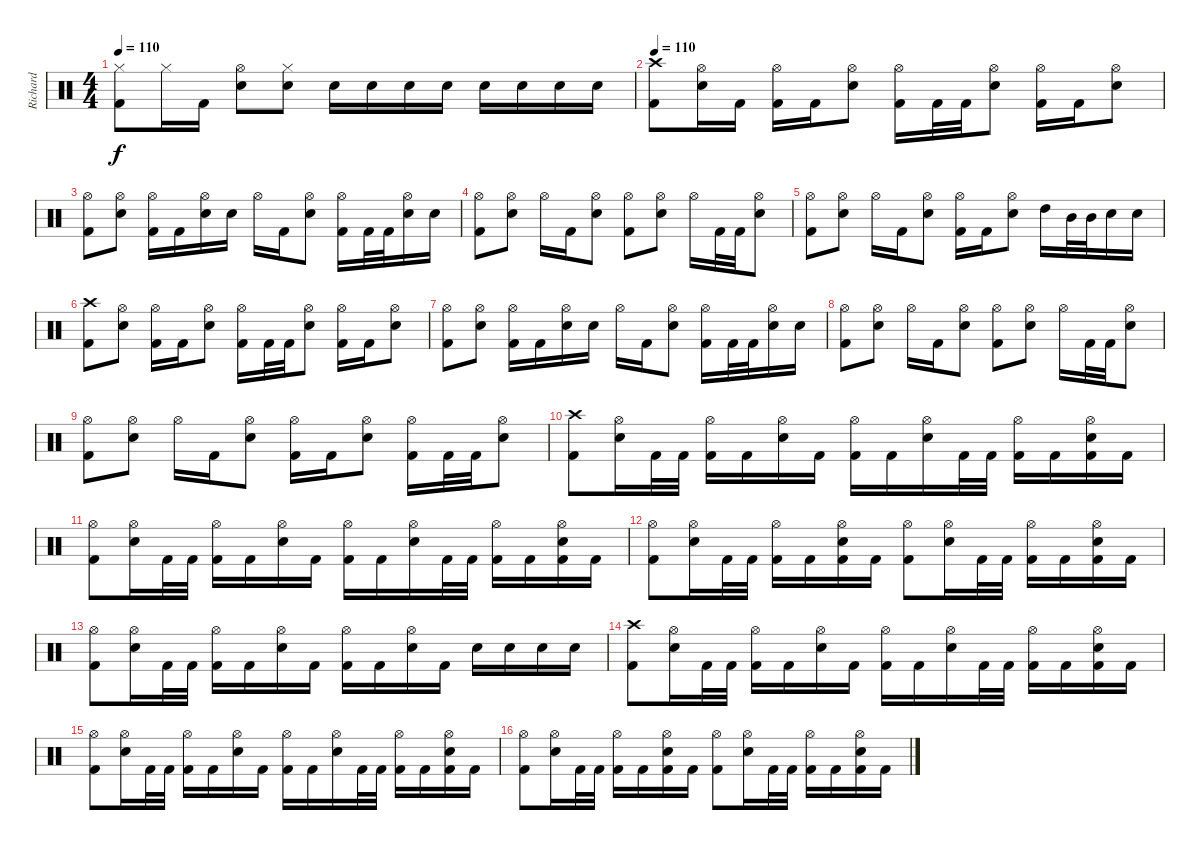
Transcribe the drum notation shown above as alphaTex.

\track ("Richard" "Richard") {instrument percussion}
\staff {score}
\articulation defaults
\ts (4 4)
\tempo 110
\clef neutral
\ks c
("Hi-Hat (closed)" "Kick (hit) 2").8{dy f} "Hi-Hat (closed)".16 "Kick (hit) 2".16 ("Hi-Hat (open)" "Snare (hit) 2").8 ("Hi-Hat (closed)" "Snare (hit) 2").8 "Snare (hit) 2".16 "Snare (hit) 2".16 "Snare (hit) 2".16 "Snare (hit) 2".16 "Snare (hit) 2".16 "Snare (hit) 2".16 "Snare (hit) 2".16 "Snare (hit) 2".16 |
\tempo 110
("Crash high (hit)" "Kick (hit) 2").8 ("Hi-Hat (open)" "Snare (hit) 2").16 "Kick (hit) 2".16 ("Hi-Hat (open)" "Kick (hit) 2").16 "Kick (hit) 2".16 ("Hi-Hat (open)" "Snare (hit) 2").8 ("Hi-Hat (open)" "Kick (hit) 2").16 "Kick (hit) 2".32 "Kick (hit) 2".32 ("Hi-Hat (open)" "Snare (hit) 2").8 ("Hi-Hat (open)" "Kick (hit) 2").16 "Kick (hit) 2".16 ("Hi-Hat (open)" "Snare (hit) 2").8 |
("Hi-Hat (open)" "Kick (hit) 2").8 ("Hi-Hat (open)" "Snare (hit) 2").8 ("Hi-Hat (open)" "Kick (hit) 2").16 "Kick (hit) 2".16 ("Hi-Hat (open)" "Snare (hit) 2").16 "Snare (hit) 2".16 "Hi-Hat (open)".16 "Kick (hit) 2".16 ("Hi-Hat (open)" "Snare (hit) 2").8 ("Hi-Hat (open)" "Kick (hit) 2").16 "Kick (hit) 2".32 "Kick (hit) 2".32 ("Hi-Hat (open)" "Snare (hit) 2").16 "Snare (hit) 2".16 |
("Hi-Hat (open)" "Kick (hit) 2").8 ("Hi-Hat (open)" "Snare (hit) 2").8 "Hi-Hat (open)".16 "Kick (hit) 2".16 ("Hi-Hat (open)" "Snare (hit) 2").8 ("Hi-Hat (open)" "Kick (hit) 2").8 ("Hi-Hat (open)" "Snare (hit) 2").8 "Hi-Hat (open)".16 "Kick (hit) 2".32 "Kick (hit) 2".32 ("Hi-Hat (open)" "Snare (hit) 2").8 |
("Hi-Hat (open)" "Kick (hit) 2").8 ("Hi-Hat (open)" "Snare (hit) 2").8 "Hi-Hat (open)".16 "Kick (hit) 2".16 ("Hi-Hat (open)" "Snare (hit) 2").8 ("Hi-Hat (open)" "Kick (hit) 2").16 "Kick (hit) 2".16 ("Hi-Hat (open)" "Snare (hit) 2").8 "High Tom (hit)".16 "Mid Tom (hit)".32 "Mid Tom (hit)".32 "Snare (hit) 2".16 "Snare (hit) 2".16 |
("Crash high (hit)" "Kick (hit) 2").8 ("Hi-Hat (open)" "Snare (hit) 2").8 ("Hi-Hat (open)" "Kick (hit) 2").16 "Kick (hit) 2".16 ("Hi-Hat (open)" "Snare (hit) 2").8 ("Hi-Hat (open)" "Kick (hit) 2").16 "Kick (hit) 2".32 "Kick (hit) 2".32 ("Hi-Hat (open)" "Snare (hit) 2").8 ("Hi-Hat (open)" "Kick (hit) 2").16 "Kick (hit) 2".16 ("Hi-Hat (open)" "Snare (hit) 2").8 |
("Hi-Hat (open)" "Kick (hit) 2").8 ("Hi-Hat (open)" "Snare (hit) 2").8 ("Hi-Hat (open)" "Kick (hit) 2").16 "Kick (hit) 2".16 ("Hi-Hat (open)" "Snare (hit) 2").16 "Snare (hit) 2".16 "Hi-Hat (open)".16 "Kick (hit) 2".16 ("Hi-Hat (open)" "Snare (hit) 2").8 ("Hi-Hat (open)" "Kick (hit) 2").16 "Kick (hit) 2".32 "Kick (hit) 2".32 ("Hi-Hat (open)" "Snare (hit) 2").16 "Snare (hit) 2".16 |
("Hi-Hat (open)" "Kick (hit) 2").8 ("Hi-Hat (open)" "Snare (hit) 2").8 "Hi-Hat (open)".16 "Kick (hit) 2".16 ("Hi-Hat (open)" "Snare (hit) 2").8 ("Hi-Hat (open)" "Kick (hit) 2").8 ("Hi-Hat (open)" "Snare (hit) 2").8 "Hi-Hat (open)".16 "Kick (hit) 2".32 "Kick (hit) 2".32 ("Hi-Hat (open)" "Snare (hit) 2").8 |
("Hi-Hat (open)" "Kick (hit) 2").8 ("Hi-Hat (open)" "Snare (hit) 2").8 "Hi-Hat (open)".16 "Kick (hit) 2".16 ("Hi-Hat (open)" "Snare (hit) 2").8 ("Hi-Hat (open)" "Kick (hit) 2").16 "Kick (hit) 2".16 ("Hi-Hat (open)" "Snare (hit) 2").8 ("Hi-Hat (open)" "Kick (hit) 2").16 "Kick (hit) 2".32 "Kick (hit) 2".32 ("Hi-Hat (open)" "Snare (hit) 2").8 |
("Crash high (hit)" "Kick (hit) 2").8 ("Hi-Hat (open)" "Snare (hit) 2").16 "Kick (hit) 2".32 "Kick (hit) 2".32 ("Hi-Hat (open)" "Kick (hit) 2").16 "Kick (hit) 2".16 ("Hi-Hat (open)" "Snare (hit) 2").16 "Kick (hit) 2".16 ("Hi-Hat (open)" "Kick (hit) 2").16 "Kick (hit) 2".16 ("Hi-Hat (open)" "Snare (hit) 2").16 "Kick (hit) 2".32 "Kick (hit) 2".32 ("Hi-Hat (open)" "Kick (hit) 2").16 "Kick (hit) 2".16 ("Hi-Hat (open)" "Snare (hit) 2" "Kick (hit) 2").16 "Kick (hit) 2".16 |
("Hi-Hat (open)" "Kick (hit) 2").8 ("Hi-Hat (open)" "Snare (hit) 2").16 "Kick (hit) 2".32 "Kick (hit) 2".32 ("Hi-Hat (open)" "Kick (hit) 2").16 "Kick (hit) 2".16 ("Hi-Hat (open)" "Snare (hit) 2").16 "Kick (hit) 2".16 ("Hi-Hat (open)" "Kick (hit) 2").16 "Kick (hit) 2".16 ("Hi-Hat (open)" "Snare (hit) 2").16 "Kick (hit) 2".32 "Kick (hit) 2".32 ("Hi-Hat (open)" "Kick (hit) 2").16 "Kick (hit) 2".16 ("Hi-Hat (open)" "Snare (hit) 2" "Kick (hit) 2").16 "Kick (hit) 2".16 |
("Hi-Hat (open)" "Kick (hit) 2").8 ("Hi-Hat (open)" "Snare (hit) 2").16 "Kick (hit) 2".32 "Kick (hit) 2".32 ("Hi-Hat (open)" "Kick (hit) 2").16 "Kick (hit) 2".16 ("Hi-Hat (open)" "Snare (hit) 2" "Kick (hit) 2").16 "Kick (hit) 2".16 ("Hi-Hat (open)" "Kick (hit) 2").8 ("Hi-Hat (open)" "Snare (hit) 2").16 "Kick (hit) 2".32 "Kick (hit) 2".32 ("Hi-Hat (open)" "Kick (hit) 2").16 "Kick (hit) 2".16 ("Hi-Hat (open)" "Snare (hit) 2" "Kick (hit) 2").16 "Kick (hit) 2".16 |
("Hi-Hat (open)" "Kick (hit) 2").8 ("Hi-Hat (open)" "Snare (hit) 2").16 "Kick (hit) 2".32 "Kick (hit) 2".32 ("Hi-Hat (open)" "Kick (hit) 2").16 "Kick (hit) 2".16 ("Hi-Hat (open)" "Snare (hit) 2").16 "Kick (hit) 2".16 ("Hi-Hat (open)" "Kick (hit) 2").16 "Kick (hit) 2".16 ("Hi-Hat (open)" "Snare (hit) 2").16 "Kick (hit) 2".16 "Snare (hit) 2".16 "Snare (hit) 2".16 "Snare (hit) 2".16 "Snare (hit) 2".16 |
("Crash high (hit)" "Kick (hit) 2").8 ("Hi-Hat (open)" "Snare (hit) 2").16 "Kick (hit) 2".32 "Kick (hit) 2".32 ("Hi-Hat (open)" "Kick (hit) 2").16 "Kick (hit) 2".16 ("Hi-Hat (open)" "Snare (hit) 2").16 "Kick (hit) 2".16 ("Hi-Hat (open)" "Kick (hit) 2").16 "Kick (hit) 2".16 ("Hi-Hat (open)" "Snare (hit) 2").16 "Kick (hit) 2".32 "Kick (hit) 2".32 ("Hi-Hat (open)" "Kick (hit) 2").16 "Kick (hit) 2".16 ("Hi-Hat (open)" "Snare (hit) 2" "Kick (hit) 2").16 "Kick (hit) 2".16 |
("Hi-Hat (open)" "Kick (hit) 2").8 ("Hi-Hat (open)" "Snare (hit) 2").16 "Kick (hit) 2".32 "Kick (hit) 2".32 ("Hi-Hat (open)" "Kick (hit) 2").16 "Kick (hit) 2".16 ("Hi-Hat (open)" "Snare (hit) 2").16 "Kick (hit) 2".16 ("Hi-Hat (open)" "Kick (hit) 2").16 "Kick (hit) 2".16 ("Hi-Hat (open)" "Snare (hit) 2").16 "Kick (hit) 2".32 "Kick (hit) 2".32 ("Hi-Hat (open)" "Kick (hit) 2").16 "Kick (hit) 2".16 ("Hi-Hat (open)" "Snare (hit) 2" "Kick (hit) 2").16 "Kick (hit) 2".16 |
("Hi-Hat (open)" "Kick (hit) 2").8 ("Hi-Hat (open)" "Snare (hit) 2").16 "Kick (hit) 2".32 "Kick (hit) 2".32 ("Hi-Hat (open)" "Kick (hit) 2").16 "Kick (hit) 2".16 ("Hi-Hat (open)" "Snare (hit) 2" "Kick (hit) 2").16 "Kick (hit) 2".16 ("Hi-Hat (open)" "Kick (hit) 2").8 ("Hi-Hat (open)" "Snare (hit) 2").16 "Kick (hit) 2".32 "Kick (hit) 2".32 ("Hi-Hat (open)" "Kick (hit) 2").16 "Kick (hit) 2".16 ("Hi-Hat (open)" "Snare (hit) 2" "Kick (hit) 2").16 "Kick (hit) 2".16
